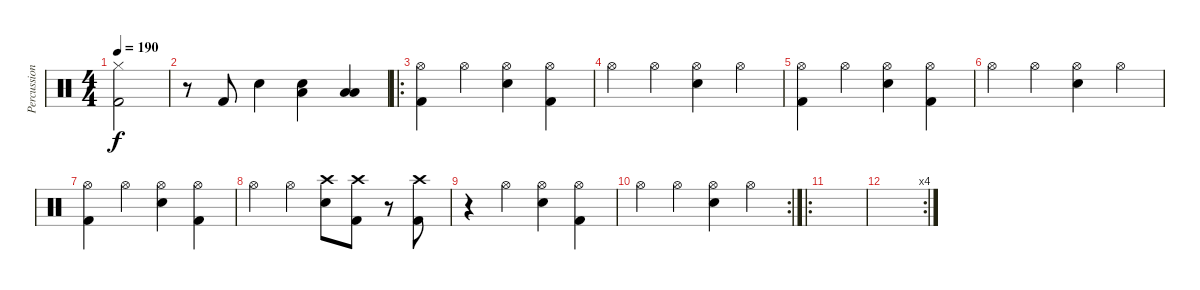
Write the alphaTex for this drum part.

\track ("Percussion" "Percussion") {instrument percussion}
\staff {score}
\articulation defaults
\ts (4 4)
\tempo 190
\clef neutral
\ks c
("Hi-Hat (closed)" "Kick (hit) 2").2{dy f} |
r.8 "Kick (hit) 2".8 "Electric Snare (hit)".4 ("Electric Snare (hit)" "Low Tom (hit)").4 ("Low Tom (hit)" "Low Floor Tom (hit)").4 |
\ro
("Hi-Hat (open)" "Kick (hit) 2").4 "Hi-Hat (open)".4 ("Hi-Hat (open)" "Electric Snare (hit)").4 ("Hi-Hat (open)" "Kick (hit) 2").4 |
"Hi-Hat (open)".4 "Hi-Hat (open)".4 ("Hi-Hat (open)" "Electric Snare (hit)").4 "Hi-Hat (open)".4 |
("Hi-Hat (open)" "Kick (hit) 2").4 "Hi-Hat (open)".4 ("Hi-Hat (open)" "Electric Snare (hit)").4 ("Hi-Hat (open)" "Kick (hit) 2").4 |
"Hi-Hat (open)".4 "Hi-Hat (open)".4 ("Hi-Hat (open)" "Electric Snare (hit)").4 "Hi-Hat (open)".4 |
("Hi-Hat (open)" "Kick (hit) 2").4 "Hi-Hat (open)".4 ("Hi-Hat (open)" "Electric Snare (hit)").4 ("Hi-Hat (open)" "Kick (hit) 2").4 |
"Hi-Hat (open)".4 "Hi-Hat (open)".4 ("Crash high (hit)" "Electric Snare (hit)").8 ("Crash high (hit)" "Kick (hit) 2").8 r.8 ("Crash high (hit)" "Kick (hit) 2").8 |
r.4 "Hi-Hat (open)".4 ("Hi-Hat (open)" "Electric Snare (hit)").4 ("Hi-Hat (open)" "Kick (hit) 2").4 |
\rc 2 "Hi-Hat (open)".4 "Hi-Hat (open)".4
("Hi-Hat (open)" "Electric Snare (hit)").4 "Hi-Hat (open)".4 |
\ro
|
\rc 4
